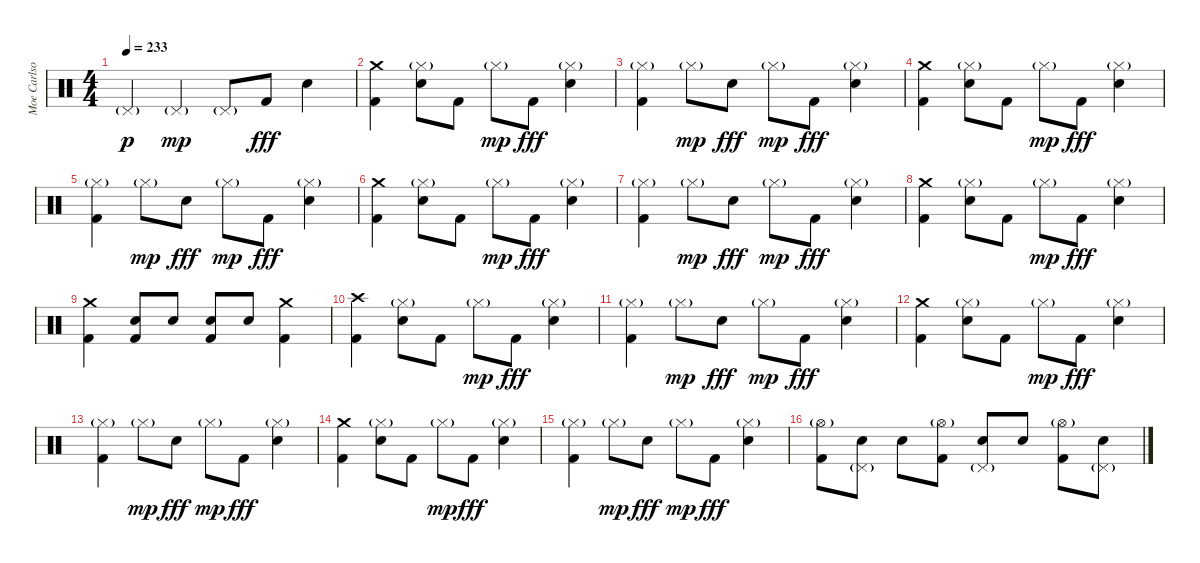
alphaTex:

\track ("Moe Carlson" "Moe Carlso") {instrument percussion}
\staff {score}
\articulation defaults
\ts (4 4)
\tempo 233
\clef neutral
\ks c "Pedal Hi-Hat (hit)"{g}.4{dy p} "Pedal Hi-Hat (hit)"{g}.4{dy mp} "Pedal Hi-Hat (hit)"{g}.8 "Kick (hit) 2".8{dy fff} "Electric Snare (hit)".4
|
("Crash medium (hit)" "Kick (hit) 2").4 ("Hi-Hat (closed)"{g} "Electric Snare (hit)").8 "Kick (hit) 2".8 "Hi-Hat (closed)"{g}.8{dy mp} "Kick (hit) 2".8{dy fff} ("Hi-Hat (closed)"{g} "Electric Snare (hit)").4 |
("Hi-Hat (closed)"{g} "Kick (hit) 2").4 "Hi-Hat (closed)"{g}.8{dy mp} "Electric Snare (hit)".8{dy fff} "Hi-Hat (closed)"{g}.8{dy mp} "Kick (hit) 2".8{dy fff} ("Hi-Hat (closed)"{g} "Electric Snare (hit)").4 |
("Crash medium (hit)" "Kick (hit) 2").4 ("Hi-Hat (closed)"{g} "Electric Snare (hit)").8 "Kick (hit) 2".8 "Hi-Hat (closed)"{g}.8{dy mp} "Kick (hit) 2".8{dy fff} ("Hi-Hat (closed)"{g} "Electric Snare (hit)").4 |
("Hi-Hat (closed)"{g} "Kick (hit) 2").4 "Hi-Hat (closed)"{g}.8{dy mp} "Electric Snare (hit)".8{dy fff} "Hi-Hat (closed)"{g}.8{dy mp} "Kick (hit) 2".8{dy fff} ("Hi-Hat (closed)"{g} "Electric Snare (hit)").4 |
("Crash medium (hit)" "Kick (hit) 2").4 ("Hi-Hat (closed)"{g} "Electric Snare (hit)").8 "Kick (hit) 2".8 "Hi-Hat (closed)"{g}.8{dy mp} "Kick (hit) 2".8{dy fff} ("Hi-Hat (closed)"{g} "Electric Snare (hit)").4 |
("Hi-Hat (closed)"{g} "Kick (hit) 2").4 "Hi-Hat (closed)"{g}.8{dy mp} "Electric Snare (hit)".8{dy fff} "Hi-Hat (closed)"{g}.8{dy mp} "Kick (hit) 2".8{dy fff} ("Hi-Hat (closed)"{g} "Electric Snare (hit)").4 |
("Crash medium (hit)" "Kick (hit) 2").4 ("Hi-Hat (closed)"{g} "Electric Snare (hit)").8 "Kick (hit) 2".8 "Hi-Hat (closed)"{g}.8{dy mp} "Kick (hit) 2".8{dy fff} ("Hi-Hat (closed)"{g} "Electric Snare (hit)").4 |
("Crash medium (hit)" "Kick (hit) 2").4 ("Electric Snare (hit)" "Kick (hit) 2").8 "Electric Snare (hit)".8 ("Electric Snare (hit)" "Kick (hit) 2").8 "Electric Snare (hit)".8 ("Crash medium (hit)" "Kick (hit) 2").4 |
("Crash high (hit)" "Kick (hit) 2").4 ("Hi-Hat (closed)"{g} "Electric Snare (hit)").8 "Kick (hit) 2".8 "Hi-Hat (closed)"{g}.8{dy mp} "Kick (hit) 2".8{dy fff} ("Hi-Hat (closed)"{g} "Electric Snare (hit)").4 |
("Hi-Hat (closed)"{g} "Kick (hit) 2").4 "Hi-Hat (closed)"{g}.8{dy mp} "Electric Snare (hit)".8{dy fff} "Hi-Hat (closed)"{g}.8{dy mp} "Kick (hit) 2".8{dy fff} ("Hi-Hat (closed)"{g} "Electric Snare (hit)").4 |
("Crash medium (hit)" "Kick (hit) 2").4 ("Hi-Hat (closed)"{g} "Electric Snare (hit)").8 "Kick (hit) 2".8 "Hi-Hat (closed)"{g}.8{dy mp} "Kick (hit) 2".8{dy fff} ("Hi-Hat (closed)"{g} "Electric Snare (hit)").4 |
("Hi-Hat (closed)"{g} "Kick (hit) 2").4 "Hi-Hat (closed)"{g}.8{dy mp} "Electric Snare (hit)".8{dy fff} "Hi-Hat (closed)"{g}.8{dy mp} "Kick (hit) 2".8{dy fff} ("Hi-Hat (closed)"{g} "Electric Snare (hit)").4 |
("Crash medium (hit)" "Kick (hit) 2").4 ("Hi-Hat (closed)"{g} "Electric Snare (hit)").8 "Kick (hit) 2".8 "Hi-Hat (closed)"{g}.8{dy mp} "Kick (hit) 2".8{dy fff} ("Hi-Hat (closed)"{g} "Electric Snare (hit)").4 |
("Hi-Hat (closed)"{g} "Kick (hit) 2").4 "Hi-Hat (closed)"{g}.8{dy mp} "Electric Snare (hit)".8{dy fff} "Hi-Hat (closed)"{g}.8{dy mp} "Kick (hit) 2".8{dy fff} ("Hi-Hat (closed)"{g} "Electric Snare (hit)").4 |
("Hi-Hat (open)"{g} "Kick (hit) 2").8 ("Electric Snare (hit)" "Pedal Hi-Hat (hit)"{g}).8 "Electric Snare (hit)".8 ("Hi-Hat (open)"{g} "Kick (hit) 2").8 ("Electric Snare (hit)" "Pedal Hi-Hat (hit)"{g}).8 "Electric Snare (hit)".8 ("Hi-Hat (open)"{g} "Kick (hit) 2").8 ("Electric Snare (hit)" "Pedal Hi-Hat (hit)"{g}).8
